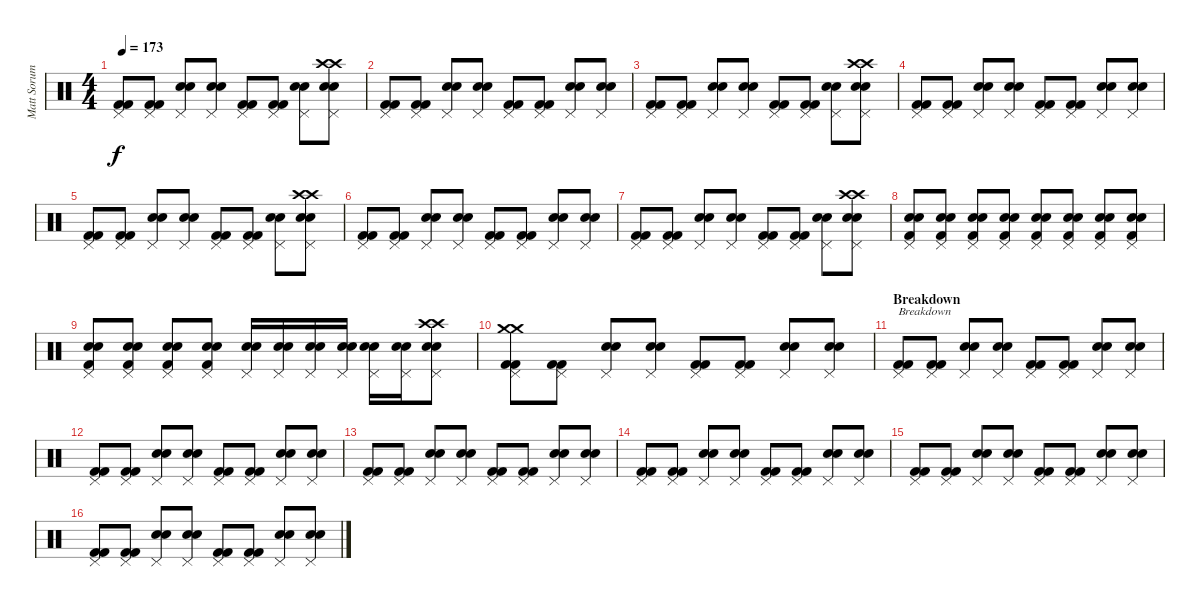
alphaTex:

\track ("Matt Sorum" "Matt Sorum") {instrument percussion}
\staff {score}
\articulation defaults
\ts (4 4)
\tempo 173
\clef neutral
\ks c
("Pedal Hi-Hat (hit)" "Kick (hit) 2" "Kick (hit) 2").8{dy f} ("Pedal Hi-Hat (hit)" "Kick (hit) 2" "Kick (hit) 2").8 ("Pedal Hi-Hat (hit)" "Snare (hit) 2" "Snare (hit) 2").8 ("Pedal Hi-Hat (hit)" "Snare (hit) 2" "Snare (hit) 2").8 ("Pedal Hi-Hat (hit)" "Kick (hit) 2" "Kick (hit) 2").8 ("Pedal Hi-Hat (hit)" "Kick (hit) 2" "Kick (hit) 2").8 ("Pedal Hi-Hat (hit)" "Snare (hit) 2" "Snare (hit) 2").8 ("Crash high (hit)" "Crash high (hit)" "Pedal Hi-Hat (hit)" "Snare (hit) 2" "Snare (hit) 2").8 |
("Pedal Hi-Hat (hit)" "Kick (hit) 2" "Kick (hit) 2").8 ("Pedal Hi-Hat (hit)" "Kick (hit) 2" "Kick (hit) 2").8 ("Pedal Hi-Hat (hit)" "Snare (hit) 2" "Snare (hit) 2").8 ("Pedal Hi-Hat (hit)" "Snare (hit) 2" "Snare (hit) 2").8 ("Pedal Hi-Hat (hit)" "Kick (hit) 2" "Kick (hit) 2").8 ("Pedal Hi-Hat (hit)" "Kick (hit) 2" "Kick (hit) 2").8 ("Pedal Hi-Hat (hit)" "Snare (hit) 2" "Snare (hit) 2").8 ("Pedal Hi-Hat (hit)" "Snare (hit) 2" "Snare (hit) 2").8 |
("Pedal Hi-Hat (hit)" "Kick (hit) 2" "Kick (hit) 2").8 ("Pedal Hi-Hat (hit)" "Kick (hit) 2" "Kick (hit) 2").8 ("Pedal Hi-Hat (hit)" "Snare (hit) 2" "Snare (hit) 2").8 ("Pedal Hi-Hat (hit)" "Snare (hit) 2" "Snare (hit) 2").8 ("Pedal Hi-Hat (hit)" "Kick (hit) 2" "Kick (hit) 2").8 ("Pedal Hi-Hat (hit)" "Kick (hit) 2" "Kick (hit) 2").8 ("Pedal Hi-Hat (hit)" "Snare (hit) 2" "Snare (hit) 2").8 ("Crash high (hit)" "Crash high (hit)" "Pedal Hi-Hat (hit)" "Snare (hit) 2" "Snare (hit) 2").8 |
("Pedal Hi-Hat (hit)" "Kick (hit) 2" "Kick (hit) 2").8 ("Pedal Hi-Hat (hit)" "Kick (hit) 2" "Kick (hit) 2").8 ("Pedal Hi-Hat (hit)" "Snare (hit) 2" "Snare (hit) 2").8 ("Pedal Hi-Hat (hit)" "Snare (hit) 2" "Snare (hit) 2").8 ("Pedal Hi-Hat (hit)" "Kick (hit) 2" "Kick (hit) 2").8 ("Pedal Hi-Hat (hit)" "Kick (hit) 2" "Kick (hit) 2").8 ("Pedal Hi-Hat (hit)" "Snare (hit) 2" "Snare (hit) 2").8 ("Pedal Hi-Hat (hit)" "Snare (hit) 2" "Snare (hit) 2").8 |
("Pedal Hi-Hat (hit)" "Kick (hit) 2" "Kick (hit) 2").8 ("Pedal Hi-Hat (hit)" "Kick (hit) 2" "Kick (hit) 2").8 ("Pedal Hi-Hat (hit)" "Snare (hit) 2" "Snare (hit) 2").8 ("Pedal Hi-Hat (hit)" "Snare (hit) 2" "Snare (hit) 2").8 ("Pedal Hi-Hat (hit)" "Kick (hit) 2" "Kick (hit) 2").8 ("Pedal Hi-Hat (hit)" "Kick (hit) 2" "Kick (hit) 2").8 ("Pedal Hi-Hat (hit)" "Snare (hit) 2" "Snare (hit) 2").8 ("Crash high (hit)" "Crash high (hit)" "Pedal Hi-Hat (hit)" "Snare (hit) 2" "Snare (hit) 2").8 |
("Pedal Hi-Hat (hit)" "Kick (hit) 2" "Kick (hit) 2").8 ("Pedal Hi-Hat (hit)" "Kick (hit) 2" "Kick (hit) 2").8 ("Pedal Hi-Hat (hit)" "Snare (hit) 2" "Snare (hit) 2").8 ("Pedal Hi-Hat (hit)" "Snare (hit) 2" "Snare (hit) 2").8 ("Pedal Hi-Hat (hit)" "Kick (hit) 2" "Kick (hit) 2").8 ("Pedal Hi-Hat (hit)" "Kick (hit) 2" "Kick (hit) 2").8 ("Pedal Hi-Hat (hit)" "Snare (hit) 2" "Snare (hit) 2").8 ("Pedal Hi-Hat (hit)" "Snare (hit) 2" "Snare (hit) 2").8 |
("Pedal Hi-Hat (hit)" "Kick (hit) 2" "Kick (hit) 2").8 ("Pedal Hi-Hat (hit)" "Kick (hit) 2" "Kick (hit) 2").8 ("Pedal Hi-Hat (hit)" "Snare (hit) 2" "Snare (hit) 2").8 ("Pedal Hi-Hat (hit)" "Snare (hit) 2" "Snare (hit) 2").8 ("Pedal Hi-Hat (hit)" "Kick (hit) 2" "Kick (hit) 2").8 ("Pedal Hi-Hat (hit)" "Kick (hit) 2" "Kick (hit) 2").8 ("Pedal Hi-Hat (hit)" "Snare (hit) 2" "Snare (hit) 2").8 ("Crash high (hit)" "Crash high (hit)" "Pedal Hi-Hat (hit)" "Snare (hit) 2" "Snare (hit) 2").8 |
("Pedal Hi-Hat (hit)" "Snare (hit) 2" "Snare (hit) 2" "Kick (hit) 2").8 ("Pedal Hi-Hat (hit)" "Snare (hit) 2" "Snare (hit) 2" "Kick (hit) 2").8 ("Pedal Hi-Hat (hit)" "Snare (hit) 2" "Snare (hit) 2" "Kick (hit) 2").8 ("Pedal Hi-Hat (hit)" "Snare (hit) 2" "Snare (hit) 2" "Kick (hit) 2").8 ("Pedal Hi-Hat (hit)" "Snare (hit) 2" "Snare (hit) 2" "Kick (hit) 2").8 ("Pedal Hi-Hat (hit)" "Snare (hit) 2" "Snare (hit) 2" "Kick (hit) 2").8 ("Pedal Hi-Hat (hit)" "Snare (hit) 2" "Snare (hit) 2" "Kick (hit) 2").8 ("Pedal Hi-Hat (hit)" "Snare (hit) 2" "Snare (hit) 2" "Kick (hit) 2").8 |
("Pedal Hi-Hat (hit)" "Snare (hit) 2" "Snare (hit) 2" "Kick (hit) 2").8 ("Pedal Hi-Hat (hit)" "Snare (hit) 2" "Snare (hit) 2" "Kick (hit) 2").8 ("Pedal Hi-Hat (hit)" "Snare (hit) 2" "Snare (hit) 2" "Kick (hit) 2").8 ("Pedal Hi-Hat (hit)" "Snare (hit) 2" "Snare (hit) 2" "Kick (hit) 2").8 ("Pedal Hi-Hat (hit)" "Snare (hit) 2" "Snare (hit) 2").16 ("Pedal Hi-Hat (hit)" "Snare (hit) 2" "Snare (hit) 2").16 ("Pedal Hi-Hat (hit)" "Snare (hit) 2" "Snare (hit) 2").16 ("Pedal Hi-Hat (hit)" "Snare (hit) 2" "Snare (hit) 2").16 ("Pedal Hi-Hat (hit)" "Snare (hit) 2" "Snare (hit) 2").16 ("Pedal Hi-Hat (hit)" "Snare (hit) 2" "Snare (hit) 2").16 ("Crash high (hit)" "Crash high (hit)" "Pedal Hi-Hat (hit)" "Snare (hit) 2" "Snare (hit) 2").8 |
("Crash medium (hit)" "Crash medium (hit)" "Pedal Hi-Hat (hit)" "Kick (hit) 2" "Kick (hit) 2").8 ("Pedal Hi-Hat (hit)" "Kick (hit) 2" "Kick (hit) 2").8 ("Pedal Hi-Hat (hit)" "Snare (hit) 2" "Snare (hit) 2").8 ("Pedal Hi-Hat (hit)" "Snare (hit) 2" "Snare (hit) 2").8 ("Pedal Hi-Hat (hit)" "Kick (hit) 2" "Kick (hit) 2").8 ("Pedal Hi-Hat (hit)" "Kick (hit) 2" "Kick (hit) 2").8 ("Pedal Hi-Hat (hit)" "Snare (hit) 2" "Snare (hit) 2").8 ("Pedal Hi-Hat (hit)" "Snare (hit) 2" "Snare (hit) 2").8 |
\section ("" "Breakdown")
("Pedal Hi-Hat (hit)" "Kick (hit) 2" "Kick (hit) 2").8{txt "Breakdown"} ("Pedal Hi-Hat (hit)" "Kick (hit) 2" "Kick (hit) 2").8 ("Pedal Hi-Hat (hit)" "Snare (hit) 2" "Snare (hit) 2").8 ("Pedal Hi-Hat (hit)" "Snare (hit) 2" "Snare (hit) 2").8 ("Pedal Hi-Hat (hit)" "Kick (hit) 2" "Kick (hit) 2").8 ("Pedal Hi-Hat (hit)" "Kick (hit) 2" "Kick (hit) 2").8 ("Pedal Hi-Hat (hit)" "Snare (hit) 2" "Snare (hit) 2").8 ("Pedal Hi-Hat (hit)" "Snare (hit) 2" "Snare (hit) 2").8 |
("Pedal Hi-Hat (hit)" "Kick (hit) 2" "Kick (hit) 2").8 ("Pedal Hi-Hat (hit)" "Kick (hit) 2" "Kick (hit) 2").8 ("Pedal Hi-Hat (hit)" "Snare (hit) 2" "Snare (hit) 2").8 ("Pedal Hi-Hat (hit)" "Snare (hit) 2" "Snare (hit) 2").8 ("Pedal Hi-Hat (hit)" "Kick (hit) 2" "Kick (hit) 2").8 ("Pedal Hi-Hat (hit)" "Kick (hit) 2" "Kick (hit) 2").8 ("Pedal Hi-Hat (hit)" "Snare (hit) 2" "Snare (hit) 2").8 ("Pedal Hi-Hat (hit)" "Snare (hit) 2" "Snare (hit) 2").8 |
("Pedal Hi-Hat (hit)" "Kick (hit) 2" "Kick (hit) 2").8 ("Pedal Hi-Hat (hit)" "Kick (hit) 2" "Kick (hit) 2").8 ("Pedal Hi-Hat (hit)" "Snare (hit) 2" "Snare (hit) 2").8 ("Pedal Hi-Hat (hit)" "Snare (hit) 2" "Snare (hit) 2").8 ("Pedal Hi-Hat (hit)" "Kick (hit) 2" "Kick (hit) 2").8 ("Pedal Hi-Hat (hit)" "Kick (hit) 2" "Kick (hit) 2").8 ("Pedal Hi-Hat (hit)" "Snare (hit) 2" "Snare (hit) 2").8 ("Pedal Hi-Hat (hit)" "Snare (hit) 2" "Snare (hit) 2").8 |
("Pedal Hi-Hat (hit)" "Kick (hit) 2" "Kick (hit) 2").8 ("Pedal Hi-Hat (hit)" "Kick (hit) 2" "Kick (hit) 2").8 ("Pedal Hi-Hat (hit)" "Snare (hit) 2" "Snare (hit) 2").8 ("Pedal Hi-Hat (hit)" "Snare (hit) 2" "Snare (hit) 2").8 ("Pedal Hi-Hat (hit)" "Kick (hit) 2" "Kick (hit) 2").8 ("Pedal Hi-Hat (hit)" "Kick (hit) 2" "Kick (hit) 2").8 ("Pedal Hi-Hat (hit)" "Snare (hit) 2" "Snare (hit) 2").8 ("Pedal Hi-Hat (hit)" "Snare (hit) 2" "Snare (hit) 2").8 |
("Pedal Hi-Hat (hit)" "Kick (hit) 2" "Kick (hit) 2").8 ("Pedal Hi-Hat (hit)" "Kick (hit) 2" "Kick (hit) 2").8 ("Pedal Hi-Hat (hit)" "Snare (hit) 2" "Snare (hit) 2").8 ("Pedal Hi-Hat (hit)" "Snare (hit) 2" "Snare (hit) 2").8 ("Pedal Hi-Hat (hit)" "Kick (hit) 2" "Kick (hit) 2").8 ("Pedal Hi-Hat (hit)" "Kick (hit) 2" "Kick (hit) 2").8 ("Pedal Hi-Hat (hit)" "Snare (hit) 2" "Snare (hit) 2").8 ("Pedal Hi-Hat (hit)" "Snare (hit) 2" "Snare (hit) 2").8 |
("Pedal Hi-Hat (hit)" "Kick (hit) 2" "Kick (hit) 2").8 ("Pedal Hi-Hat (hit)" "Kick (hit) 2" "Kick (hit) 2").8 ("Pedal Hi-Hat (hit)" "Snare (hit) 2" "Snare (hit) 2").8 ("Pedal Hi-Hat (hit)" "Snare (hit) 2" "Snare (hit) 2").8 ("Pedal Hi-Hat (hit)" "Kick (hit) 2" "Kick (hit) 2").8 ("Pedal Hi-Hat (hit)" "Kick (hit) 2" "Kick (hit) 2").8 ("Pedal Hi-Hat (hit)" "Snare (hit) 2" "Snare (hit) 2").8 ("Pedal Hi-Hat (hit)" "Snare (hit) 2" "Snare (hit) 2").8
